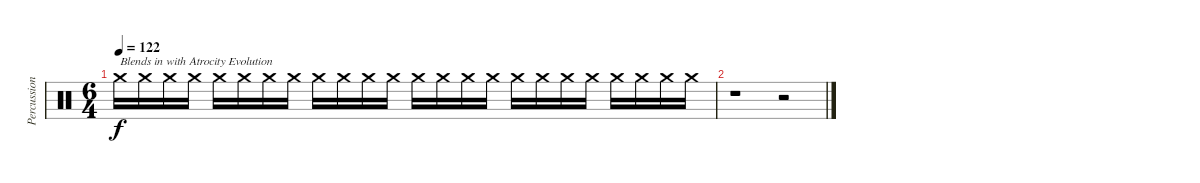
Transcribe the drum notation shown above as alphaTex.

\track ("Percussion" "Percussion") {instrument percussion}
\staff {score}
\articulation defaults
\ts (6 4)
\tempo 122
\clef neutral
\ks c "Crash medium (hit)".16{txt "Blends in with Atrocity Evolution" dy f volume 13} "Crash medium (hit)".16 "Crash medium (hit)".16 "Crash medium (hit)".16 "Crash medium (hit)".16 "Crash medium (hit)".16 "Crash medium (hit)".16 "Crash medium (hit)".16 "Crash medium (hit)".16 "Crash medium (hit)".16 "Crash medium (hit)".16 "Crash medium (hit)".16 "Crash medium (hit)".16 "Crash medium (hit)".16 "Crash medium (hit)".16 "Crash medium (hit)".16 "Crash medium (hit)".16 "Crash medium (hit)".16 "Crash medium (hit)".16 "Crash medium (hit)".16 "Crash medium (hit)".16 "Crash medium (hit)".16 "Crash medium (hit)".16 "Crash medium (hit)".16
|
r.1 r.2
